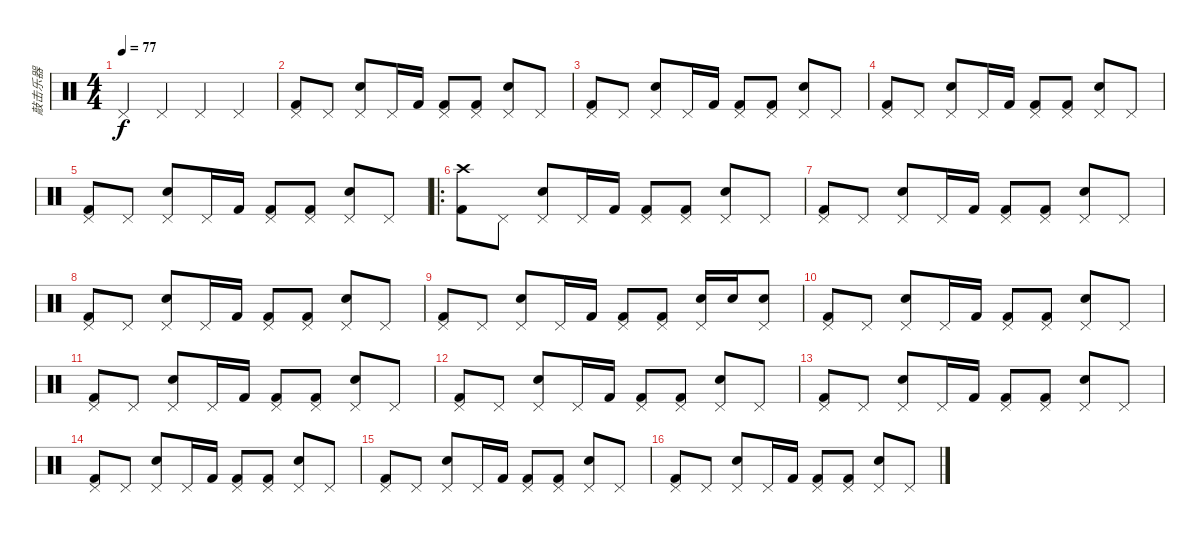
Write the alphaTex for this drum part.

\track ("敲击乐器" "敲击乐器") {instrument percussion}
\staff {score}
\articulation defaults
\ts (4 4)
\tempo 77
\clef neutral
\ks c "Pedal Hi-Hat (hit)".4{dy f} "Pedal Hi-Hat (hit)".4 "Pedal Hi-Hat (hit)".4 "Pedal Hi-Hat (hit)".4
|
("Pedal Hi-Hat (hit)" "Kick (hit) 2").8 "Pedal Hi-Hat (hit)".8 ("Pedal Hi-Hat (hit)" "Snare (hit) 2").8 "Pedal Hi-Hat (hit)".16 "Kick (hit) 2".16 ("Pedal Hi-Hat (hit)" "Kick (hit) 2").8 ("Pedal Hi-Hat (hit)" "Kick (hit) 2").8 ("Pedal Hi-Hat (hit)" "Snare (hit) 2").8 "Pedal Hi-Hat (hit)".8 |
("Pedal Hi-Hat (hit)" "Kick (hit) 2").8 "Pedal Hi-Hat (hit)".8 ("Pedal Hi-Hat (hit)" "Snare (hit) 2").8 "Pedal Hi-Hat (hit)".16 "Kick (hit) 2".16 ("Pedal Hi-Hat (hit)" "Kick (hit) 2").8 ("Pedal Hi-Hat (hit)" "Kick (hit) 2").8 ("Pedal Hi-Hat (hit)" "Snare (hit) 2").8 "Pedal Hi-Hat (hit)".8 |
("Pedal Hi-Hat (hit)" "Kick (hit) 2").8 "Pedal Hi-Hat (hit)".8 ("Pedal Hi-Hat (hit)" "Snare (hit) 2").8 "Pedal Hi-Hat (hit)".16 "Kick (hit) 2".16 ("Pedal Hi-Hat (hit)" "Kick (hit) 2").8 ("Pedal Hi-Hat (hit)" "Kick (hit) 2").8 ("Pedal Hi-Hat (hit)" "Snare (hit) 2").8 "Pedal Hi-Hat (hit)".8 |
("Pedal Hi-Hat (hit)" "Kick (hit) 2").8 "Pedal Hi-Hat (hit)".8 ("Pedal Hi-Hat (hit)" "Snare (hit) 2").8 "Pedal Hi-Hat (hit)".16 "Kick (hit) 2".16 ("Pedal Hi-Hat (hit)" "Kick (hit) 2").8 ("Pedal Hi-Hat (hit)" "Kick (hit) 2").8 ("Pedal Hi-Hat (hit)" "Snare (hit) 2").8 "Pedal Hi-Hat (hit)".8 |
\ro
("Crash high (hit)" "Kick (hit) 2").8 "Pedal Hi-Hat (hit)".8 ("Pedal Hi-Hat (hit)" "Snare (hit) 2").8 "Pedal Hi-Hat (hit)".16 "Kick (hit) 2".16 ("Pedal Hi-Hat (hit)" "Kick (hit) 2").8 ("Pedal Hi-Hat (hit)" "Kick (hit) 2").8 ("Pedal Hi-Hat (hit)" "Snare (hit) 2").8 "Pedal Hi-Hat (hit)".8 |
("Pedal Hi-Hat (hit)" "Kick (hit) 2").8 "Pedal Hi-Hat (hit)".8 ("Pedal Hi-Hat (hit)" "Snare (hit) 2").8 "Pedal Hi-Hat (hit)".16 "Kick (hit) 2".16 ("Pedal Hi-Hat (hit)" "Kick (hit) 2").8 ("Pedal Hi-Hat (hit)" "Kick (hit) 2").8 ("Pedal Hi-Hat (hit)" "Snare (hit) 2").8 "Pedal Hi-Hat (hit)".8 |
("Pedal Hi-Hat (hit)" "Kick (hit) 2").8 "Pedal Hi-Hat (hit)".8 ("Pedal Hi-Hat (hit)" "Snare (hit) 2").8 "Pedal Hi-Hat (hit)".16 "Kick (hit) 2".16 ("Pedal Hi-Hat (hit)" "Kick (hit) 2").8 ("Pedal Hi-Hat (hit)" "Kick (hit) 2").8 ("Pedal Hi-Hat (hit)" "Snare (hit) 2").8 "Pedal Hi-Hat (hit)".8 |
("Pedal Hi-Hat (hit)" "Kick (hit) 2").8 "Pedal Hi-Hat (hit)".8 ("Pedal Hi-Hat (hit)" "Snare (hit) 2").8 "Pedal Hi-Hat (hit)".16 "Kick (hit) 2".16 ("Pedal Hi-Hat (hit)" "Kick (hit) 2").8 ("Pedal Hi-Hat (hit)" "Kick (hit) 2").8 ("Pedal Hi-Hat (hit)" "Snare (hit) 2").16 "Snare (hit) 2".16 ("Pedal Hi-Hat (hit)" "Snare (hit) 2").8 |
("Pedal Hi-Hat (hit)" "Kick (hit) 2").8 "Pedal Hi-Hat (hit)".8 ("Pedal Hi-Hat (hit)" "Snare (hit) 2").8 "Pedal Hi-Hat (hit)".16 "Kick (hit) 2".16 ("Pedal Hi-Hat (hit)" "Kick (hit) 2").8 ("Pedal Hi-Hat (hit)" "Kick (hit) 2").8 ("Pedal Hi-Hat (hit)" "Snare (hit) 2").8 "Pedal Hi-Hat (hit)".8 |
("Pedal Hi-Hat (hit)" "Kick (hit) 2").8 "Pedal Hi-Hat (hit)".8 ("Pedal Hi-Hat (hit)" "Snare (hit) 2").8 "Pedal Hi-Hat (hit)".16 "Kick (hit) 2".16 ("Pedal Hi-Hat (hit)" "Kick (hit) 2").8 ("Pedal Hi-Hat (hit)" "Kick (hit) 2").8 ("Pedal Hi-Hat (hit)" "Snare (hit) 2").8 "Pedal Hi-Hat (hit)".8 |
("Pedal Hi-Hat (hit)" "Kick (hit) 2").8 "Pedal Hi-Hat (hit)".8 ("Pedal Hi-Hat (hit)" "Snare (hit) 2").8 "Pedal Hi-Hat (hit)".16 "Kick (hit) 2".16 ("Pedal Hi-Hat (hit)" "Kick (hit) 2").8 ("Pedal Hi-Hat (hit)" "Kick (hit) 2").8 ("Pedal Hi-Hat (hit)" "Snare (hit) 2").8 "Pedal Hi-Hat (hit)".8 |
("Pedal Hi-Hat (hit)" "Kick (hit) 2").8 "Pedal Hi-Hat (hit)".8 ("Pedal Hi-Hat (hit)" "Snare (hit) 2").8 "Pedal Hi-Hat (hit)".16 "Kick (hit) 2".16 ("Pedal Hi-Hat (hit)" "Kick (hit) 2").8 ("Pedal Hi-Hat (hit)" "Kick (hit) 2").8 ("Pedal Hi-Hat (hit)" "Snare (hit) 2").8 "Pedal Hi-Hat (hit)".8 |
("Pedal Hi-Hat (hit)" "Kick (hit) 2").8 "Pedal Hi-Hat (hit)".8 ("Pedal Hi-Hat (hit)" "Snare (hit) 2").8 "Pedal Hi-Hat (hit)".16 "Kick (hit) 2".16 ("Pedal Hi-Hat (hit)" "Kick (hit) 2").8 ("Pedal Hi-Hat (hit)" "Kick (hit) 2").8 ("Pedal Hi-Hat (hit)" "Snare (hit) 2").8 "Pedal Hi-Hat (hit)".8 |
("Pedal Hi-Hat (hit)" "Kick (hit) 2").8 "Pedal Hi-Hat (hit)".8 ("Pedal Hi-Hat (hit)" "Snare (hit) 2").8 "Pedal Hi-Hat (hit)".16 "Kick (hit) 2".16 ("Pedal Hi-Hat (hit)" "Kick (hit) 2").8 ("Pedal Hi-Hat (hit)" "Kick (hit) 2").8 ("Pedal Hi-Hat (hit)" "Snare (hit) 2").8 "Pedal Hi-Hat (hit)".8 |
("Pedal Hi-Hat (hit)" "Kick (hit) 2").8 "Pedal Hi-Hat (hit)".8 ("Pedal Hi-Hat (hit)" "Snare (hit) 2").8 "Pedal Hi-Hat (hit)".16 "Kick (hit) 2".16 ("Pedal Hi-Hat (hit)" "Kick (hit) 2").8 ("Pedal Hi-Hat (hit)" "Kick (hit) 2").8 ("Pedal Hi-Hat (hit)" "Snare (hit) 2").8 "Pedal Hi-Hat (hit)".8
